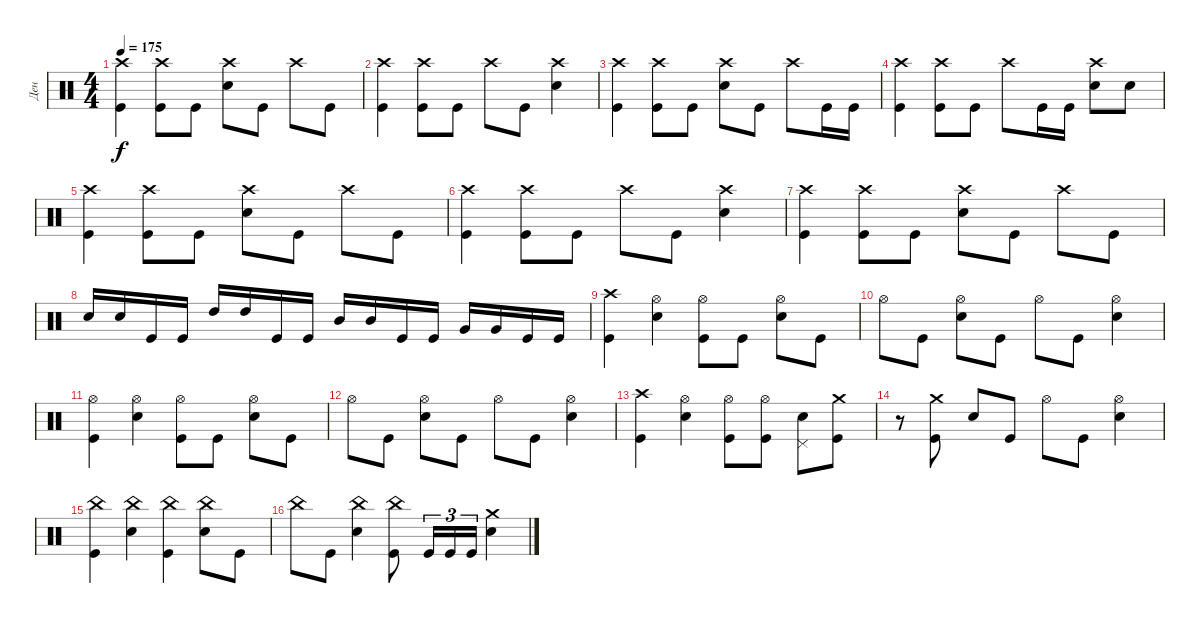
\track ("Ден" "Ден") {instrument percussion}
\staff {score}
\articulation defaults
\ts (4 4)
\tempo 175
\clef neutral
\ks c
("Crash high (hit)" "Kick (hit)").4{dy f} ("Crash high (hit)" "Kick (hit)").8 "Kick (hit)".8 ("Crash high (hit)" "Snare (hit) 2").8 "Kick (hit)".8 "Crash high (hit)".8 "Kick (hit)".8 |
("Crash high (hit)" "Kick (hit)").4 ("Crash high (hit)" "Kick (hit)").8 "Kick (hit)".8 "Crash high (hit)".8 "Kick (hit)".8 ("Crash high (hit)" "Snare (hit) 2").4 |
("Crash high (hit)" "Kick (hit)").4 ("Crash high (hit)" "Kick (hit)").8 "Kick (hit)".8 ("Crash high (hit)" "Snare (hit) 2").8 "Kick (hit)".8 "Crash high (hit)".8 "Kick (hit)".16 "Kick (hit)".16 |
("Crash high (hit)" "Kick (hit)").4 ("Crash high (hit)" "Kick (hit)").8 "Kick (hit)".8 "Crash high (hit)".8 "Kick (hit)".16 "Kick (hit)".16 ("Crash high (hit)" "Snare (hit) 2").8 "Snare (hit) 2".8 |
("Crash high (hit)" "Kick (hit)").4 ("Crash high (hit)" "Kick (hit)").8 "Kick (hit)".8 ("Crash high (hit)" "Snare (hit) 2").8 "Kick (hit)".8 "Crash high (hit)".8 "Kick (hit)".8 |
("Crash high (hit)" "Kick (hit)").4 ("Crash high (hit)" "Kick (hit)").8 "Kick (hit)".8 "Crash high (hit)".8 "Kick (hit)".8 ("Crash high (hit)" "Snare (hit) 2").4 |
("Crash high (hit)" "Kick (hit)").4 ("Crash high (hit)" "Kick (hit)").8 "Kick (hit)".8 ("Crash high (hit)" "Snare (hit) 2").8 "Kick (hit)".8 "Crash high (hit)".8 "Kick (hit)".8 |
"Snare (hit) 2".16 "Snare (hit) 2".16 "Kick (hit)".16 "Kick (hit)".16 "High Tom (hit)".16 "High Tom (hit)".16 "Kick (hit)".16 "Kick (hit)".16 "Mid Tom (hit)".16 "Mid Tom (hit)".16 "Kick (hit)".16 "Kick (hit)".16 "Very Low Tom (hit)".16 "Very Low Tom (hit)".16 "Kick (hit)".16 "Kick (hit)".16 |
("Crash high (hit)" "Kick (hit)").4 ("Hi-Hat (open)" "Snare (hit) 2").4 ("Hi-Hat (open)" "Kick (hit)").8 "Kick (hit)".8 ("Hi-Hat (open)" "Snare (hit) 2").8 "Kick (hit)".8 |
"Hi-Hat (open)".8 "Kick (hit)".8 ("Hi-Hat (open)" "Snare (hit) 2").8 "Kick (hit)".8 "Hi-Hat (open)".8 "Kick (hit)".8 ("Hi-Hat (open)" "Snare (hit) 2").4 |
("Hi-Hat (open)" "Kick (hit)").4 ("Hi-Hat (open)" "Snare (hit) 2").4 ("Hi-Hat (open)" "Kick (hit)").8 "Kick (hit)".8 ("Hi-Hat (open)" "Snare (hit) 2").8 "Kick (hit)".8 |
"Hi-Hat (open)".8 "Kick (hit)".8 ("Hi-Hat (open)" "Snare (hit) 2").8 "Kick (hit)".8 "Hi-Hat (open)".8 "Kick (hit)".8 ("Hi-Hat (open)" "Snare (hit) 2").4 |
("Crash high (hit)" "Kick (hit)").4 ("Hi-Hat (open)" "Snare (hit) 2").4 ("Hi-Hat (open)" "Kick (hit)").8 ("Hi-Hat (open)" "Kick (hit)").8 ("Pedal Hi-Hat (hit)" "Snare (hit) 2").8 ("Crash medium (hit)" "Kick (hit)").8 |
r.8 ("Crash medium (hit)" "Kick (hit)").8 "Snare (hit) 2".8 "Kick (hit)".8 "Hi-Hat (open)".8 "Kick (hit)".8 ("Hi-Hat (open)" "Snare (hit) 2").4 |
("China (hit)" "Kick (hit)").4 ("China (hit)" "Snare (hit) 2").4 ("China (hit)" "Kick (hit)").4 ("China (hit)" "Snare (hit) 2").8 "Kick (hit)".8 |
"China (hit)".8 "Kick (hit)".8 ("China (hit)" "Snare (hit) 2").4 ("China (hit)" "Kick (hit)").8 "Kick (hit)".16{tu (3 2)} "Kick (hit)".16{tu (3 2)} "Kick (hit)".16{tu (3 2)} ("Crash medium (hit)" "Snare (hit) 2").4
